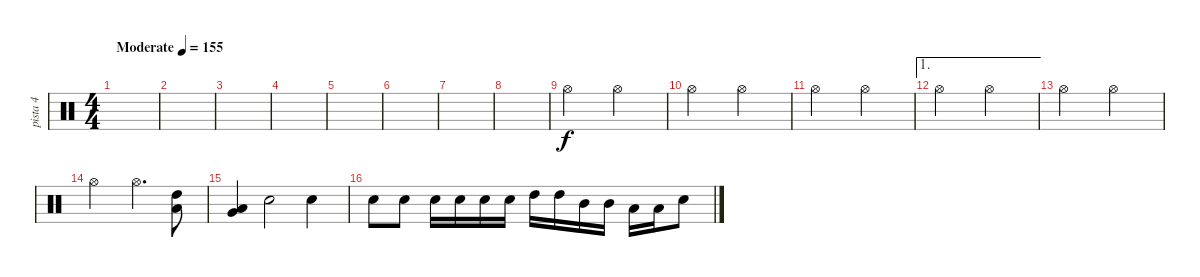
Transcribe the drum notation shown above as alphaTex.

\track ("pista 4" "pista 4") {instrument percussion}
\staff {score}
\articulation defaults
\ts (4 4)
\tempo (155 "Moderate")
\clef neutral
\ks c
|
|
|
|
|
|
|
|
"Hi-Hat (open)".2 "Hi-Hat (open)".2 |
"Hi-Hat (open)".2 "Hi-Hat (open)".2 |
"Hi-Hat (open)".2 "Hi-Hat (open)".2 |
\ae 1 "Hi-Hat (open)".2 "Hi-Hat (open)".2
|
"Hi-Hat (open)".2 "Hi-Hat (open)".2 |
"Hi-Hat (open)".2 "Hi-Hat (open)".4{d} ("High Tom (hit)" "Low Tom (hit)").8 |
("Low Tom (hit)" "Very Low Tom (hit)").4 "Snare (hit) 2".2 "Snare (hit) 2".4 |
"Snare (hit) 2".8 "Snare (hit) 2".8 "Snare (hit) 2".16 "Snare (hit) 2".16 "Snare (hit) 2".16 "Snare (hit) 2".16 "High Tom (hit)".16 "High Tom (hit)".16 "Mid Tom (hit)".16 "Mid Tom (hit)".16 "Low Tom (hit)".16 "Low Tom (hit)".16 "Snare (hit) 2".8
